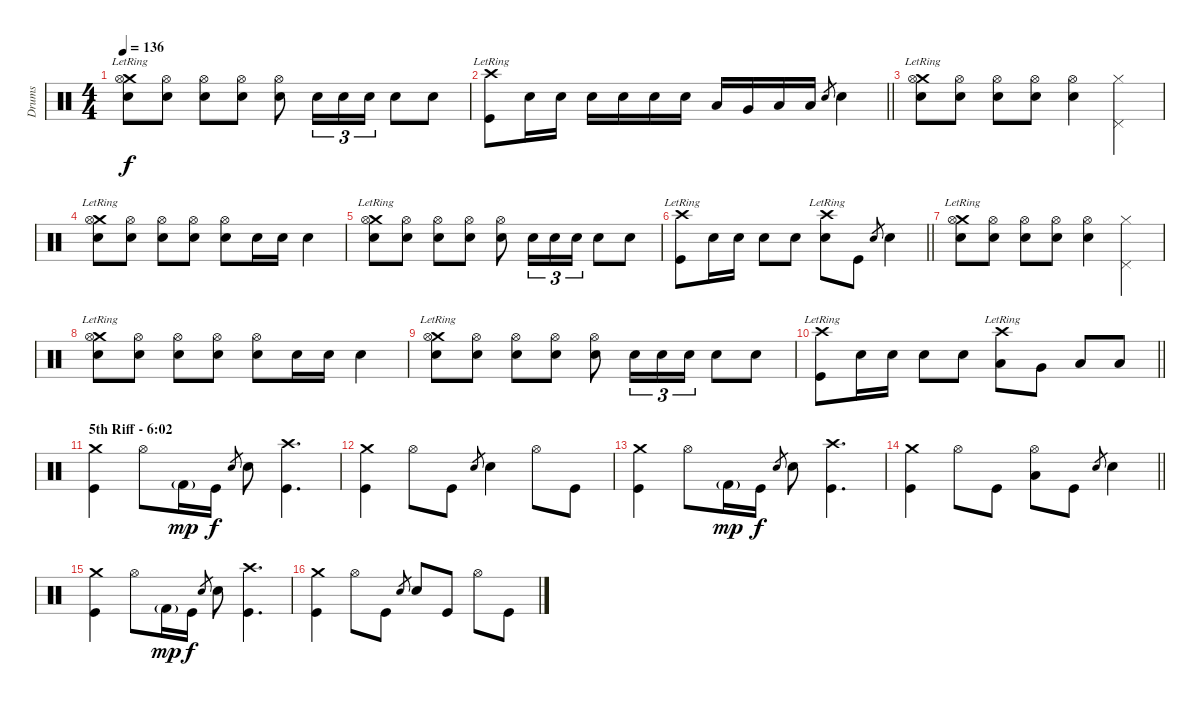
\track ("Drums" "Drums") {instrument percussion}
\staff {score}
\articulation defaults
\ts (4 4)
\tempo 136
\clef neutral
\ks c
("Crash medium (hit)"{lr} "Hi-Hat (open)" "Snare (hit) 2").8{dy f} ("Hi-Hat (open)" "Snare (hit) 2").8 ("Hi-Hat (open)" "Snare (hit) 2").8 ("Hi-Hat (open)" "Snare (hit) 2").8 ("Hi-Hat (open)" "Snare (hit) 2").8 "Snare (hit) 2".16{tu (3 2)} "Snare (hit) 2".16{tu (3 2)} "Snare (hit) 2".16{tu (3 2)} "Snare (hit) 2".8 "Snare (hit) 2".8 |
\barLineRight lightlight
("Crash high (hit)"{lr} "Kick (hit)").8 "Snare (hit) 2".16 "Snare (hit) 2".16 "Snare (hit) 2".16 "Snare (hit) 2".16 "Snare (hit) 2".16 "Snare (hit) 2".16 "Low Tom (hit)".16 "Very Low Tom (hit)".16 "Low Tom (hit)".16 "Low Floor Tom (hit)".16 "Snare (hit) 2".8{gr} "Snare (hit) 2".4 |
("Crash medium (hit)"{lr} "Hi-Hat (open)" "Snare (hit) 2").8 ("Hi-Hat (open)" "Snare (hit) 2").8 ("Hi-Hat (open)" "Snare (hit) 2").8 ("Hi-Hat (open)" "Snare (hit) 2").8 ("Hi-Hat (open)" "Snare (hit) 2").4 ("Pedal Hi-Hat (hit)" "Hi-Hat (closed)").4 |
("Crash medium (hit)"{lr} "Hi-Hat (open)" "Snare (hit) 2").8 ("Hi-Hat (open)" "Snare (hit) 2").8 ("Hi-Hat (open)" "Snare (hit) 2").8 ("Hi-Hat (open)" "Snare (hit) 2").8 ("Hi-Hat (open)" "Snare (hit) 2").8 "Snare (hit) 2".16 "Snare (hit) 2".16 "Snare (hit) 2".4 |
("Crash medium (hit)"{lr} "Hi-Hat (open)" "Snare (hit) 2").8 ("Hi-Hat (open)" "Snare (hit) 2").8 ("Hi-Hat (open)" "Snare (hit) 2").8 ("Hi-Hat (open)" "Snare (hit) 2").8 ("Hi-Hat (open)" "Snare (hit) 2").8 "Snare (hit) 2".16{tu (3 2)} "Snare (hit) 2".16{tu (3 2)} "Snare (hit) 2".16{tu (3 2)} "Snare (hit) 2".8 "Snare (hit) 2".8 |
\barLineRight lightlight
("Crash high (hit)"{lr} "Kick (hit)").8 "Snare (hit) 2".16 "Snare (hit) 2".16 "Snare (hit) 2".8 "Snare (hit) 2".8 ("Crash high (hit)"{lr} "Snare (hit) 2").8 "Kick (hit)".8 "Snare (hit) 2".8{gr} "Snare (hit) 2".4 |
("Crash medium (hit)"{lr} "Hi-Hat (open)" "Snare (hit) 2").8 ("Hi-Hat (open)" "Snare (hit) 2").8 ("Hi-Hat (open)" "Snare (hit) 2").8 ("Hi-Hat (open)" "Snare (hit) 2").8 ("Hi-Hat (open)" "Snare (hit) 2").4 ("Pedal Hi-Hat (hit)" "Hi-Hat (closed)").4 |
("Crash medium (hit)"{lr} "Hi-Hat (open)" "Snare (hit) 2").8 ("Hi-Hat (open)" "Snare (hit) 2").8 ("Hi-Hat (open)" "Snare (hit) 2").8 ("Hi-Hat (open)" "Snare (hit) 2").8 ("Hi-Hat (open)" "Snare (hit) 2").8 "Snare (hit) 2".16 "Snare (hit) 2".16 "Snare (hit) 2".4 |
("Crash medium (hit)"{lr} "Hi-Hat (open)" "Snare (hit) 2").8 ("Hi-Hat (open)" "Snare (hit) 2").8 ("Hi-Hat (open)" "Snare (hit) 2").8 ("Hi-Hat (open)" "Snare (hit) 2").8 ("Hi-Hat (open)" "Snare (hit) 2").8 "Snare (hit) 2".16{tu (3 2)} "Snare (hit) 2".16{tu (3 2)} "Snare (hit) 2".16{tu (3 2)} "Snare (hit) 2".8 "Snare (hit) 2".8 |
\barLineRight lightlight
("Crash high (hit)"{lr} "Kick (hit)").8 "Snare (hit) 2".16 "Snare (hit) 2".16 "Snare (hit) 2".8 "Snare (hit) 2".8 ("Crash high (hit)"{lr} "Low Tom (hit)").8 "Very Low Tom (hit)".8 "Low Tom (hit)".8 "Low Floor Tom (hit)".8 |
\section ("" "5th Riff - 6:02")
("Crash medium (hit)" "Kick (hit)").4 "Hi-Hat (open)".8 "Kick (hit) 2"{g}.16{dy mp} "Kick (hit)".16{dy f} "Snare (hit) 2".8{gr} "Snare (hit) 2".8 ("Crash high (hit)" "Kick (hit)").4{d} |
("Crash medium (hit)" "Kick (hit)").4 "Hi-Hat (open)".8 "Kick (hit)".8 "Snare (hit) 2".8{gr} "Snare (hit) 2".4 "Hi-Hat (open)".8 "Kick (hit)".8 |
("Crash medium (hit)" "Kick (hit)").4 "Hi-Hat (open)".8 "Kick (hit) 2"{g}.16{dy mp} "Kick (hit)".16{dy f} "Snare (hit) 2".8{gr} "Snare (hit) 2".8 ("Crash high (hit)" "Kick (hit)").4{d} |
\barLineRight lightlight
("Crash medium (hit)" "Kick (hit)").4 "Hi-Hat (open)".8 "Kick (hit)".8 ("Hi-Hat (open)" "Low Tom (hit)").8 "Kick (hit)".8 "Snare (hit) 2".8{gr} "Snare (hit) 2".4 |
("Crash medium (hit)" "Kick (hit)").4 "Hi-Hat (open)".8 "Kick (hit) 2"{g}.16{dy mp} "Kick (hit)".16{dy f} "Snare (hit) 2".8{gr} "Snare (hit) 2".8 ("Crash high (hit)" "Kick (hit)").4{d} |
("Crash medium (hit)" "Kick (hit)").4 "Hi-Hat (open)".8 "Kick (hit)".8 "Snare (hit) 2".8{gr} "Snare (hit) 2".8 "Kick (hit)".8 "Hi-Hat (open)".8 "Kick (hit)".8
